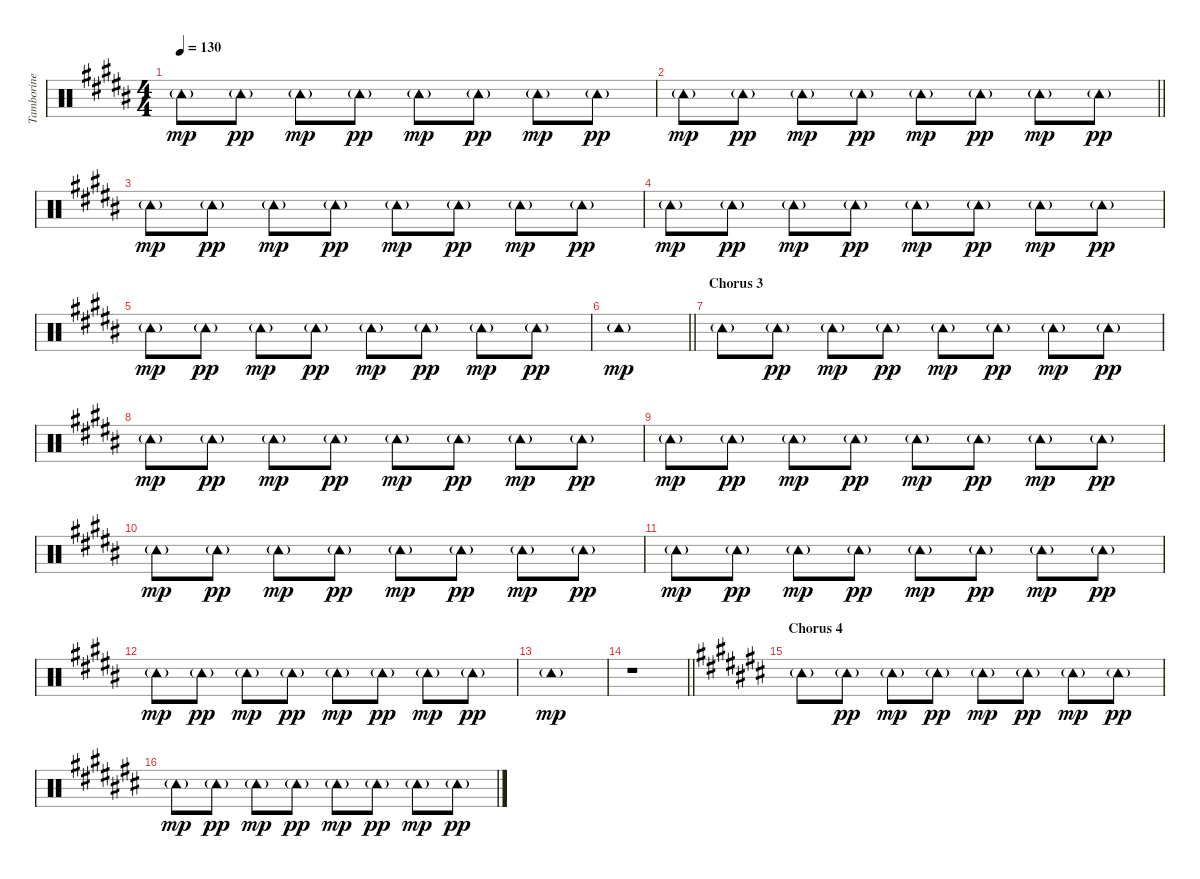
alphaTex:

\track ("Tamborine" "Tamborine") {instrument percussion}
\staff {score}
\articulation defaults
\ts (4 4)
\tempo 130
\clef neutral
\ks b "Tambourine (hit)"{g}.8{dy mp} "Tambourine (hit)"{g}.8{dy pp} "Tambourine (hit)"{g}.8{dy mp} "Tambourine (hit)"{g}.8{dy pp} "Tambourine (hit)"{g}.8{dy mp} "Tambourine (hit)"{g}.8{dy pp} "Tambourine (hit)"{g}.8{dy mp} "Tambourine (hit)"{g}.8{dy pp}
|
\barLineRight lightlight "Tambourine (hit)"{g}.8{dy mp} "Tambourine (hit)"{g}.8{dy pp} "Tambourine (hit)"{g}.8{dy mp} "Tambourine (hit)"{g}.8{dy pp} "Tambourine (hit)"{g}.8{dy mp} "Tambourine (hit)"{g}.8{dy pp} "Tambourine (hit)"{g}.8{dy mp} "Tambourine (hit)"{g}.8{dy pp}
|
"Tambourine (hit)"{g}.8{dy mp} "Tambourine (hit)"{g}.8{dy pp} "Tambourine (hit)"{g}.8{dy mp} "Tambourine (hit)"{g}.8{dy pp} "Tambourine (hit)"{g}.8{dy mp} "Tambourine (hit)"{g}.8{dy pp} "Tambourine (hit)"{g}.8{dy mp} "Tambourine (hit)"{g}.8{dy pp} |
"Tambourine (hit)"{g}.8{dy mp} "Tambourine (hit)"{g}.8{dy pp} "Tambourine (hit)"{g}.8{dy mp} "Tambourine (hit)"{g}.8{dy pp} "Tambourine (hit)"{g}.8{dy mp} "Tambourine (hit)"{g}.8{dy pp} "Tambourine (hit)"{g}.8{dy mp} "Tambourine (hit)"{g}.8{dy pp} |
"Tambourine (hit)"{g}.8{dy mp} "Tambourine (hit)"{g}.8{dy pp} "Tambourine (hit)"{g}.8{dy mp} "Tambourine (hit)"{g}.8{dy pp} "Tambourine (hit)"{g}.8{dy mp} "Tambourine (hit)"{g}.8{dy pp} "Tambourine (hit)"{g}.8{dy mp} "Tambourine (hit)"{g}.8{dy pp} |
\barLineRight lightlight "Tambourine (hit)"{g}.1{dy mp}
|
\section ("" "Chorus 3")
"Tambourine (hit)"{g}.8 "Tambourine (hit)"{g}.8{dy pp} "Tambourine (hit)"{g}.8{dy mp} "Tambourine (hit)"{g}.8{dy pp} "Tambourine (hit)"{g}.8{dy mp} "Tambourine (hit)"{g}.8{dy pp} "Tambourine (hit)"{g}.8{dy mp} "Tambourine (hit)"{g}.8{dy pp} |
"Tambourine (hit)"{g}.8{dy mp} "Tambourine (hit)"{g}.8{dy pp} "Tambourine (hit)"{g}.8{dy mp} "Tambourine (hit)"{g}.8{dy pp} "Tambourine (hit)"{g}.8{dy mp} "Tambourine (hit)"{g}.8{dy pp} "Tambourine (hit)"{g}.8{dy mp} "Tambourine (hit)"{g}.8{dy pp} |
"Tambourine (hit)"{g}.8{dy mp} "Tambourine (hit)"{g}.8{dy pp} "Tambourine (hit)"{g}.8{dy mp} "Tambourine (hit)"{g}.8{dy pp} "Tambourine (hit)"{g}.8{dy mp} "Tambourine (hit)"{g}.8{dy pp} "Tambourine (hit)"{g}.8{dy mp} "Tambourine (hit)"{g}.8{dy pp} |
"Tambourine (hit)"{g}.8{dy mp} "Tambourine (hit)"{g}.8{dy pp} "Tambourine (hit)"{g}.8{dy mp} "Tambourine (hit)"{g}.8{dy pp} "Tambourine (hit)"{g}.8{dy mp} "Tambourine (hit)"{g}.8{dy pp} "Tambourine (hit)"{g}.8{dy mp} "Tambourine (hit)"{g}.8{dy pp} |
"Tambourine (hit)"{g}.8{dy mp} "Tambourine (hit)"{g}.8{dy pp} "Tambourine (hit)"{g}.8{dy mp} "Tambourine (hit)"{g}.8{dy pp} "Tambourine (hit)"{g}.8{dy mp} "Tambourine (hit)"{g}.8{dy pp} "Tambourine (hit)"{g}.8{dy mp} "Tambourine (hit)"{g}.8{dy pp} |
"Tambourine (hit)"{g}.8{dy mp} "Tambourine (hit)"{g}.8{dy pp} "Tambourine (hit)"{g}.8{dy mp} "Tambourine (hit)"{g}.8{dy pp} "Tambourine (hit)"{g}.8{dy mp} "Tambourine (hit)"{g}.8{dy pp} "Tambourine (hit)"{g}.8{dy mp} "Tambourine (hit)"{g}.8{dy pp} |
"Tambourine (hit)"{g}.1{dy mp} |
\barLineRight lightlight
r.1 |
\section ("" "Chorus 4")
\ks c# "Tambourine (hit)"{g}.8 "Tambourine (hit)"{g}.8{dy pp} "Tambourine (hit)"{g}.8{dy mp} "Tambourine (hit)"{g}.8{dy pp} "Tambourine (hit)"{g}.8{dy mp} "Tambourine (hit)"{g}.8{dy pp} "Tambourine (hit)"{g}.8{dy mp} "Tambourine (hit)"{g}.8{dy pp}
|
"Tambourine (hit)"{g}.8{dy mp} "Tambourine (hit)"{g}.8{dy pp} "Tambourine (hit)"{g}.8{dy mp} "Tambourine (hit)"{g}.8{dy pp} "Tambourine (hit)"{g}.8{dy mp} "Tambourine (hit)"{g}.8{dy pp} "Tambourine (hit)"{g}.8{dy mp} "Tambourine (hit)"{g}.8{dy pp}
